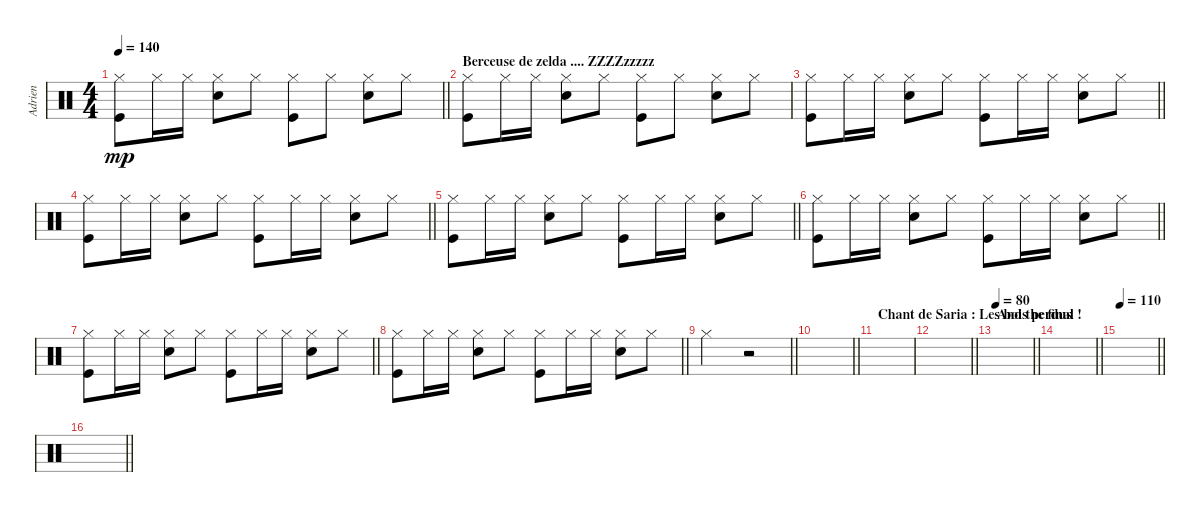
\track ("Adrien" "Adrien") {instrument percussion}
\staff {score}
\articulation defaults
\ts (4 4)
\tempo 140
\clef neutral
\barLineRight lightlight
\ks c
("Kick (hit)" "Hi-Hat (closed)").8{dy mp} "Hi-Hat (closed)".16 "Hi-Hat (closed)".16 ("Snare (hit) 2" "Hi-Hat (closed)").8 "Hi-Hat (closed)".8 ("Kick (hit)" "Hi-Hat (closed)").8 "Hi-Hat (closed)".8 ("Snare (hit) 2" "Hi-Hat (closed)").8 "Hi-Hat (closed)".8 |
\section ("" "Berceuse de zelda .... ZZZZzzzzz")
("Kick (hit)" "Hi-Hat (closed)").8 "Hi-Hat (closed)".16 "Hi-Hat (closed)".16 ("Snare (hit) 2" "Hi-Hat (closed)").8 "Hi-Hat (closed)".8 ("Kick (hit)" "Hi-Hat (closed)").8 "Hi-Hat (closed)".8 ("Snare (hit) 2" "Hi-Hat (closed)").8 "Hi-Hat (closed)".8 |
\barLineRight lightlight
("Kick (hit)" "Hi-Hat (closed)").8 "Hi-Hat (closed)".16 "Hi-Hat (closed)".16 ("Snare (hit) 2" "Hi-Hat (closed)").8 "Hi-Hat (closed)".8 ("Kick (hit)" "Hi-Hat (closed)").8 "Hi-Hat (closed)".16 "Hi-Hat (closed)".16 ("Snare (hit) 2" "Hi-Hat (closed)").8 "Hi-Hat (closed)".8 |
\barLineRight lightlight
("Kick (hit)" "Hi-Hat (closed)").8 "Hi-Hat (closed)".16 "Hi-Hat (closed)".16 ("Snare (hit) 2" "Hi-Hat (closed)").8 "Hi-Hat (closed)".8 ("Kick (hit)" "Hi-Hat (closed)").8 "Hi-Hat (closed)".16 "Hi-Hat (closed)".16 ("Snare (hit) 2" "Hi-Hat (closed)").8 "Hi-Hat (closed)".8 |
\barLineRight lightlight
("Kick (hit)" "Hi-Hat (closed)").8 "Hi-Hat (closed)".16 "Hi-Hat (closed)".16 ("Snare (hit) 2" "Hi-Hat (closed)").8 "Hi-Hat (closed)".8 ("Kick (hit)" "Hi-Hat (closed)").8 "Hi-Hat (closed)".16 "Hi-Hat (closed)".16 ("Snare (hit) 2" "Hi-Hat (closed)").8 "Hi-Hat (closed)".8 |
\barLineRight lightlight
("Kick (hit)" "Hi-Hat (closed)").8 "Hi-Hat (closed)".16 "Hi-Hat (closed)".16 ("Snare (hit) 2" "Hi-Hat (closed)").8 "Hi-Hat (closed)".8 ("Kick (hit)" "Hi-Hat (closed)").8 "Hi-Hat (closed)".16 "Hi-Hat (closed)".16 ("Snare (hit) 2" "Hi-Hat (closed)").8 "Hi-Hat (closed)".8 |
\barLineRight lightlight
("Kick (hit)" "Hi-Hat (closed)").8 "Hi-Hat (closed)".16 "Hi-Hat (closed)".16 ("Snare (hit) 2" "Hi-Hat (closed)").8 "Hi-Hat (closed)".8 ("Kick (hit)" "Hi-Hat (closed)").8 "Hi-Hat (closed)".16 "Hi-Hat (closed)".16 ("Snare (hit) 2" "Hi-Hat (closed)").8 "Hi-Hat (closed)".8 |
\barLineRight lightlight
("Kick (hit)" "Hi-Hat (closed)").8 "Hi-Hat (closed)".16 "Hi-Hat (closed)".16 ("Snare (hit) 2" "Hi-Hat (closed)").8 "Hi-Hat (closed)".8 ("Kick (hit)" "Hi-Hat (closed)").8 "Hi-Hat (closed)".16 "Hi-Hat (closed)".16 ("Snare (hit) 2" "Hi-Hat (closed)").8 "Hi-Hat (closed)".8 |
\barLineRight lightlight "Hi-Hat (closed)".2
r.2 |
\barLineRight lightlight
|
\section ("" "Chant de Saria : Les bois perdus")
|
\barLineRight lightlight
|
\section ("" "And the final !")
\tempo 80
\barLineRight lightlight
|
\barLineRight lightlight
|
\tempo 110
\barLineRight lightlight
|
\barLineRight lightlight
